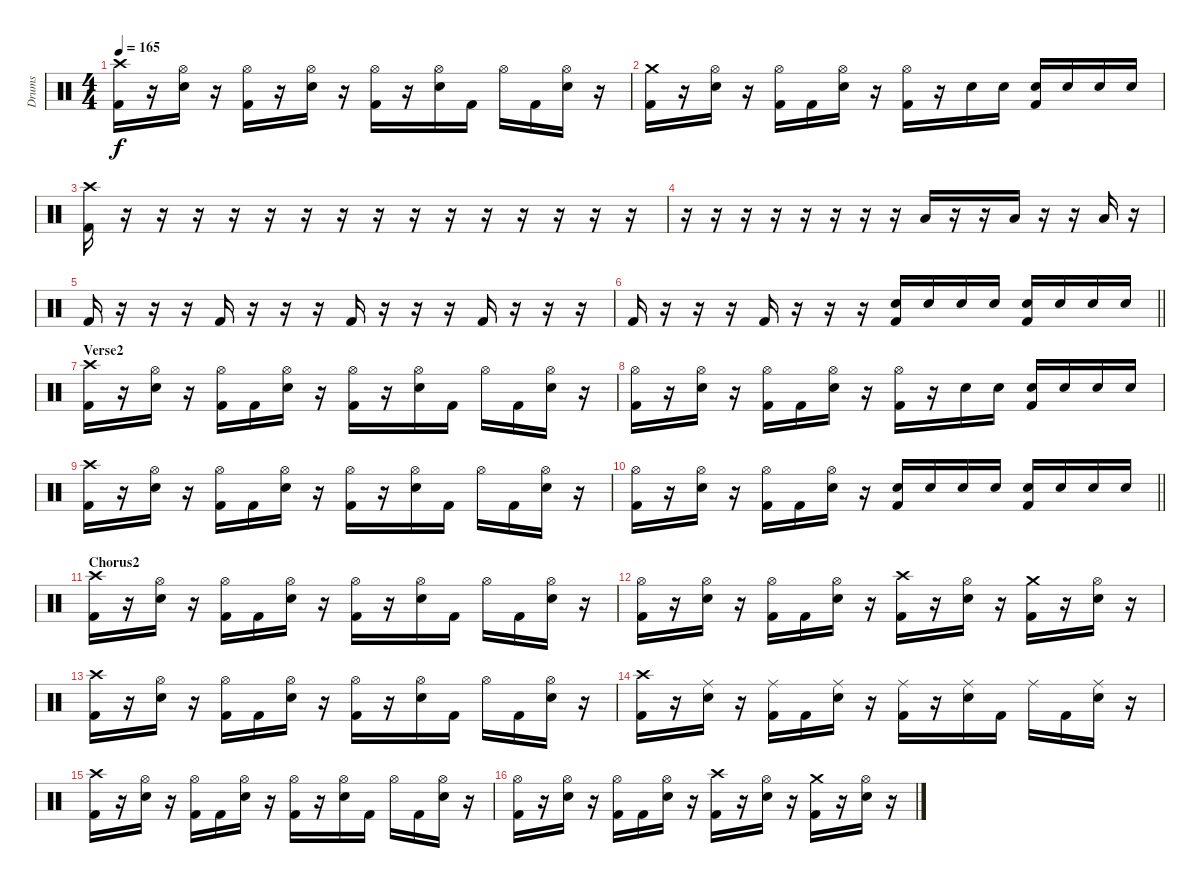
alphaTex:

\track ("Drums" "Drums") {instrument percussion}
\staff {score}
\articulation defaults
\ts (4 4)
\tempo 165
\clef neutral
\ks c
("Crash high (hit)" "Kick (hit) 2").16{dy f} r.16 ("Hi-Hat (open)" "Electric Snare (hit)").16 r.16 ("Hi-Hat (open)" "Kick (hit) 2").16 r.16 ("Hi-Hat (open)" "Electric Snare (hit)").16 r.16 ("Hi-Hat (open)" "Kick (hit) 2").16 r.16 ("Hi-Hat (open)" "Electric Snare (hit)").16 "Kick (hit) 2".16 "Hi-Hat (open)".16 "Kick (hit) 2".16 ("Hi-Hat (open)" "Electric Snare (hit)").16 r.16 |
("Crash medium (hit)" "Kick (hit) 2").16 r.16 ("Hi-Hat (open)" "Electric Snare (hit)").16 r.16 ("Hi-Hat (open)" "Kick (hit) 2").16 "Kick (hit) 2".16 ("Hi-Hat (open)" "Electric Snare (hit)").16 r.16 ("Hi-Hat (open)" "Kick (hit) 2").16 r.16 "Electric Snare (hit)".16 "Electric Snare (hit)".16 ("Electric Snare (hit)" "Kick (hit) 2").16 "Electric Snare (hit)".16 "Electric Snare (hit)".16 "Electric Snare (hit)".16 |
("Crash high (hit)" "Kick (hit) 2").16 r.16 r.16 r.16 r.16 r.16 r.16 r.16 r.16 r.16 r.16 r.16 r.16 r.16 r.16 r.16 |
r.16 r.16 r.16 r.16 r.16 r.16 r.16 r.16 "Low Tom (hit)".16 r.16 r.16 "Low Tom (hit)".16 r.16 r.16 "Low Tom (hit)".16 r.16 |
"Kick (hit) 2".16 r.16 r.16 r.16 "Kick (hit) 2".16 r.16 r.16 r.16 "Kick (hit) 2".16 r.16 r.16 r.16 "Kick (hit) 2".16 r.16 r.16 r.16 |
\barLineRight lightlight "Kick (hit) 2".16
r.16 r.16 r.16 "Kick (hit) 2".16 r.16 r.16 r.16 ("Electric Snare (hit)" "Kick (hit) 2").16 "Electric Snare (hit)".16 "Electric Snare (hit)".16 "Electric Snare (hit)".16 ("Electric Snare (hit)" "Kick (hit) 2").16 "Electric Snare (hit)".16 "Electric Snare (hit)".16 "Electric Snare (hit)".16 |
\section ("" "Verse2")
("Crash high (hit)" "Kick (hit) 2").16 r.16 ("Hi-Hat (open)" "Electric Snare (hit)").16 r.16 ("Hi-Hat (open)" "Kick (hit) 2").16 "Kick (hit) 2".16 ("Hi-Hat (open)" "Electric Snare (hit)").16 r.16 ("Hi-Hat (open)" "Kick (hit) 2").16 r.16 ("Hi-Hat (open)" "Electric Snare (hit)").16 "Kick (hit) 2".16 "Hi-Hat (open)".16 "Kick (hit) 2".16 ("Hi-Hat (open)" "Electric Snare (hit)").16 r.16 |
("Hi-Hat (open)" "Kick (hit) 2").16 r.16 ("Hi-Hat (open)" "Electric Snare (hit)").16 r.16 ("Hi-Hat (open)" "Kick (hit) 2").16 "Kick (hit) 2".16 ("Hi-Hat (open)" "Electric Snare (hit)").16 r.16 ("Hi-Hat (open)" "Kick (hit) 2").16 r.16 "Electric Snare (hit)".16 "Electric Snare (hit)".16 ("Electric Snare (hit)" "Kick (hit) 2").16 "Electric Snare (hit)".16 "Electric Snare (hit)".16 "Electric Snare (hit)".16 |
("Crash high (hit)" "Kick (hit) 2").16 r.16 ("Hi-Hat (open)" "Electric Snare (hit)").16 r.16 ("Hi-Hat (open)" "Kick (hit) 2").16 "Kick (hit) 2".16 ("Hi-Hat (open)" "Electric Snare (hit)").16 r.16 ("Hi-Hat (open)" "Kick (hit) 2").16 r.16 ("Hi-Hat (open)" "Electric Snare (hit)").16 "Kick (hit) 2".16 "Hi-Hat (open)".16 "Kick (hit) 2".16 ("Hi-Hat (open)" "Electric Snare (hit)").16 r.16 |
\barLineRight lightlight
("Hi-Hat (open)" "Kick (hit) 2").16 r.16 ("Hi-Hat (open)" "Electric Snare (hit)").16 r.16 ("Hi-Hat (open)" "Kick (hit) 2").16 "Kick (hit) 2".16 ("Hi-Hat (open)" "Electric Snare (hit)").16 r.16 ("Electric Snare (hit)" "Kick (hit) 2").16 "Electric Snare (hit)".16 "Electric Snare (hit)".16 "Electric Snare (hit)".16 ("Electric Snare (hit)" "Kick (hit) 2").16 "Electric Snare (hit)".16 "Electric Snare (hit)".16 "Electric Snare (hit)".16 |
\section ("" "Chorus2")
("Crash high (hit)" "Kick (hit) 2").16 r.16 ("Hi-Hat (open)" "Electric Snare (hit)").16 r.16 ("Hi-Hat (open)" "Kick (hit) 2").16 "Kick (hit) 2".16 ("Hi-Hat (open)" "Electric Snare (hit)").16 r.16 ("Hi-Hat (open)" "Kick (hit) 2").16 r.16 ("Hi-Hat (open)" "Electric Snare (hit)").16 "Kick (hit) 2".16 "Hi-Hat (open)".16 "Kick (hit) 2".16 ("Hi-Hat (open)" "Electric Snare (hit)").16 r.16 |
("Hi-Hat (open)" "Kick (hit) 2").16 r.16 ("Hi-Hat (open)" "Electric Snare (hit)").16 r.16 ("Hi-Hat (open)" "Kick (hit) 2").16 "Kick (hit) 2".16 ("Hi-Hat (open)" "Electric Snare (hit)").16 r.16 ("Crash high (hit)" "Kick (hit) 2").16 r.16 ("Hi-Hat (open)" "Electric Snare (hit)").16 r.16 ("Crash medium (hit)" "Kick (hit) 2").16 r.16 ("Hi-Hat (open)" "Electric Snare (hit)").16 r.16 |
("Crash high (hit)" "Kick (hit) 2").16 r.16 ("Hi-Hat (open)" "Electric Snare (hit)").16 r.16 ("Hi-Hat (open)" "Kick (hit) 2").16 "Kick (hit) 2".16 ("Hi-Hat (open)" "Electric Snare (hit)").16 r.16 ("Hi-Hat (open)" "Kick (hit) 2").16 r.16 ("Hi-Hat (open)" "Electric Snare (hit)").16 "Kick (hit) 2".16 "Hi-Hat (open)".16 "Kick (hit) 2".16 ("Hi-Hat (open)" "Electric Snare (hit)").16 r.16 |
("Crash high (hit)" "Kick (hit) 2").16 r.16 ("Ride (middle)" "Electric Snare (hit)").16 r.16 ("Ride (middle)" "Kick (hit) 2").16 "Kick (hit) 2".16 ("Ride (middle)" "Electric Snare (hit)").16 r.16 ("Ride (middle)" "Kick (hit) 2").16 r.16 ("Ride (middle)" "Electric Snare (hit)").16 "Kick (hit) 2".16 "Ride (middle)".16 "Kick (hit) 2".16 ("Ride (middle)" "Electric Snare (hit)").16 r.16 |
("Crash high (hit)" "Kick (hit) 2").16 r.16 ("Hi-Hat (open)" "Electric Snare (hit)").16 r.16 ("Hi-Hat (open)" "Kick (hit) 2").16 "Kick (hit) 2".16 ("Hi-Hat (open)" "Electric Snare (hit)").16 r.16 ("Hi-Hat (open)" "Kick (hit) 2").16 r.16 ("Hi-Hat (open)" "Electric Snare (hit)").16 "Kick (hit) 2".16 "Hi-Hat (open)".16 "Kick (hit) 2".16 ("Hi-Hat (open)" "Electric Snare (hit)").16 r.16 |
("Hi-Hat (open)" "Kick (hit) 2").16 r.16 ("Hi-Hat (open)" "Electric Snare (hit)").16 r.16 ("Hi-Hat (open)" "Kick (hit) 2").16 "Kick (hit) 2".16 ("Hi-Hat (open)" "Electric Snare (hit)").16 r.16 ("Crash high (hit)" "Kick (hit) 2").16 r.16 ("Hi-Hat (open)" "Electric Snare (hit)").16 r.16 ("Crash medium (hit)" "Kick (hit) 2").16 r.16 ("Hi-Hat (open)" "Electric Snare (hit)").16 r.16
